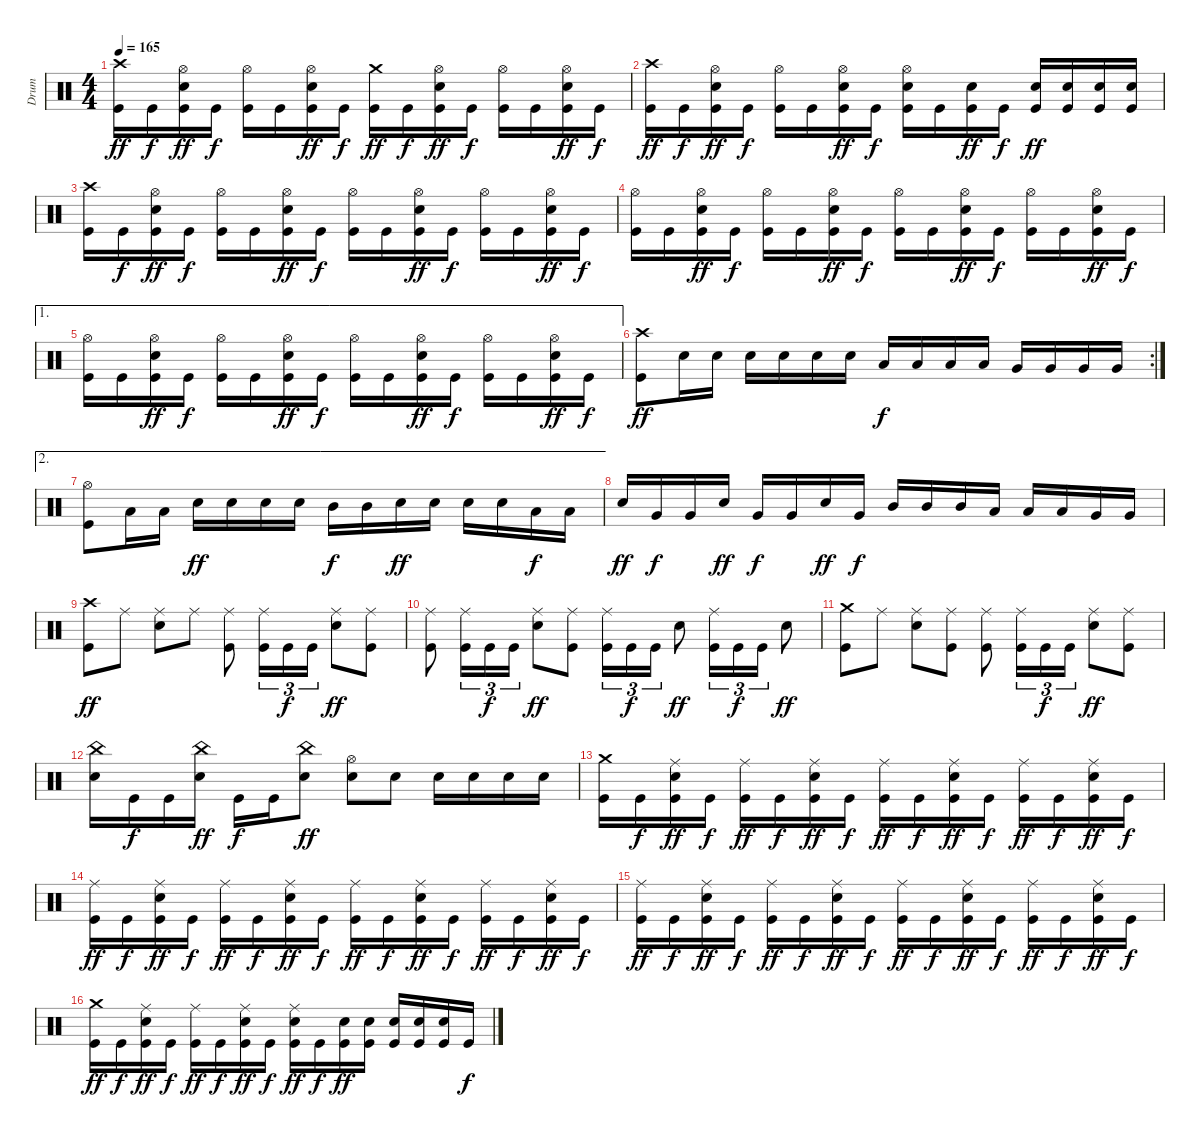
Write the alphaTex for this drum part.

\track ("Drum" "Drum") {instrument percussion}
\staff {score}
\articulation defaults
\ts (4 4)
\tempo 165
\clef neutral
\ks c
("Kick (hit)" "Crash high (hit)").16{dy ff} "Kick (hit)".16{dy f} ("Kick (hit)" "Electric Snare (hit)" "Hi-Hat (open)").16{dy ff} "Kick (hit)".16{dy f} ("Kick (hit)" "Hi-Hat (open)").16 "Kick (hit)".16 ("Kick (hit)" "Electric Snare (hit)" "Hi-Hat (open)").16{dy ff} "Kick (hit)".16{dy f} ("Kick (hit)" "Crash medium (hit)").16{dy ff} "Kick (hit)".16{dy f} ("Kick (hit)" "Electric Snare (hit)" "Hi-Hat (open)").16{dy ff} "Kick (hit)".16{dy f} ("Kick (hit)" "Hi-Hat (open)").16 "Kick (hit)".16 ("Kick (hit)" "Electric Snare (hit)" "Hi-Hat (open)").16{dy ff} "Kick (hit)".16{dy f} |
("Kick (hit)" "Crash high (hit)").16{dy ff} "Kick (hit)".16{dy f} ("Kick (hit)" "Electric Snare (hit)" "Hi-Hat (open)").16{dy ff} "Kick (hit)".16{dy f} ("Kick (hit)" "Hi-Hat (open)").16 "Kick (hit)".16 ("Kick (hit)" "Electric Snare (hit)" "Hi-Hat (open)").16{dy ff} "Kick (hit)".16{dy f} ("Kick (hit)" "Electric Snare (hit)" "Hi-Hat (open)").16 "Kick (hit)".16 ("Kick (hit)" "Electric Snare (hit)").16{dy ff} "Kick (hit)".16{dy f} ("Kick (hit)" "Electric Snare (hit)").16{dy ff} ("Kick (hit)" "Electric Snare (hit)").16 ("Kick (hit)" "Electric Snare (hit)").16 ("Kick (hit)" "Electric Snare (hit)").16 |
("Kick (hit)" "Crash high (hit)").16 "Kick (hit)".16{dy f} ("Kick (hit)" "Electric Snare (hit)" "Hi-Hat (open)").16{dy ff} "Kick (hit)".16{dy f} ("Kick (hit)" "Hi-Hat (open)").16 "Kick (hit)".16 ("Kick (hit)" "Electric Snare (hit)" "Hi-Hat (open)").16{dy ff} "Kick (hit)".16{dy f} ("Kick (hit)" "Hi-Hat (open)").16 "Kick (hit)".16 ("Kick (hit)" "Electric Snare (hit)" "Hi-Hat (open)").16{dy ff} "Kick (hit)".16{dy f} ("Kick (hit)" "Hi-Hat (open)").16 "Kick (hit)".16 ("Kick (hit)" "Electric Snare (hit)" "Hi-Hat (open)").16{dy ff} "Kick (hit)".16{dy f} |
("Kick (hit)" "Hi-Hat (open)").16 "Kick (hit)".16 ("Kick (hit)" "Electric Snare (hit)" "Hi-Hat (open)").16{dy ff} "Kick (hit)".16{dy f} ("Kick (hit)" "Hi-Hat (open)").16 "Kick (hit)".16 ("Kick (hit)" "Electric Snare (hit)" "Hi-Hat (open)").16{dy ff} "Kick (hit)".16{dy f} ("Kick (hit)" "Hi-Hat (open)").16 "Kick (hit)".16 ("Kick (hit)" "Electric Snare (hit)" "Hi-Hat (open)").16{dy ff} "Kick (hit)".16{dy f} ("Kick (hit)" "Hi-Hat (open)").16 "Kick (hit)".16 ("Kick (hit)" "Electric Snare (hit)" "Hi-Hat (open)").16{dy ff} "Kick (hit)".16{dy f} |
\ae 1
("Kick (hit)" "Hi-Hat (open)").16 "Kick (hit)".16 ("Kick (hit)" "Electric Snare (hit)" "Hi-Hat (open)").16{dy ff} "Kick (hit)".16{dy f} ("Kick (hit)" "Hi-Hat (open)").16 "Kick (hit)".16 ("Kick (hit)" "Electric Snare (hit)" "Hi-Hat (open)").16{dy ff} "Kick (hit)".16{dy f} ("Kick (hit)" "Hi-Hat (open)").16 "Kick (hit)".16 ("Kick (hit)" "Electric Snare (hit)" "Hi-Hat (open)").16{dy ff} "Kick (hit)".16{dy f} ("Kick (hit)" "Hi-Hat (open)").16 "Kick (hit)".16 ("Kick (hit)" "Electric Snare (hit)" "Hi-Hat (open)").16{dy ff} "Kick (hit)".16{dy f} |
\rc 2
("Kick (hit)" "Crash high (hit)").8{dy ff} "Electric Snare (hit)".16 "Electric Snare (hit)".16 "Electric Snare (hit)".16 "Electric Snare (hit)".16 "Electric Snare (hit)".16 "Electric Snare (hit)".16 "Low Tom (hit)".16{dy f} "Low Tom (hit)".16 "Low Tom (hit)".16 "Low Tom (hit)".16 "Very Low Tom (hit)".16 "Very Low Tom (hit)".16 "Very Low Tom (hit)".16 "Very Low Tom (hit)".16 |
\ae 2
("Kick (hit)" "Hi-Hat (open)").8 "Low Tom (hit)".16 "Low Tom (hit)".16 "Electric Snare (hit)".16{dy ff} "Electric Snare (hit)".16 "Electric Snare (hit)".16 "Electric Snare (hit)".16 "Mid Tom (hit)".16{dy f} "Mid Tom (hit)".16 "Electric Snare (hit)".16{dy ff} "Electric Snare (hit)".16 "Electric Snare (hit)".16 "Electric Snare (hit)".16 "Low Tom (hit)".16{dy f} "Low Tom (hit)".16 |
"Electric Snare (hit)".16{dy ff} "Very Low Tom (hit)".16{dy f} "Very Low Tom (hit)".16 "Electric Snare (hit)".16{dy ff} "Very Low Tom (hit)".16{dy f} "Very Low Tom (hit)".16 "Electric Snare (hit)".16{dy ff} "Very Low Tom (hit)".16{dy f} "Mid Tom (hit)".16 "Mid Tom (hit)".16 "Mid Tom (hit)".16 "Low Tom (hit)".16 "Low Tom (hit)".16 "Low Tom (hit)".16 "Very Low Tom (hit)".16 "Very Low Tom (hit)".16 |
("Kick (hit)" "Crash high (hit)").8{dy ff} "Ride (middle)".8 ("Electric Snare (hit)" "Ride (middle)").8 "Ride (middle)".8 ("Kick (hit)" "Ride (middle)").8 ("Kick (hit)" "Ride (middle)").16{tu (3 2)} "Kick (hit)".16{tu (3 2) dy f} "Kick (hit)".16{tu (3 2)} ("Electric Snare (hit)" "Ride (middle)").8{dy ff} ("Kick (hit)" "Ride (middle)").8 |
("Kick (hit)" "Ride (middle)").8 ("Kick (hit)" "Ride (middle)").16{tu (3 2)} "Kick (hit)".16{tu (3 2) dy f} "Kick (hit)".16{tu (3 2)} ("Electric Snare (hit)" "Ride (middle)").8{dy ff} ("Kick (hit)" "Ride (middle)").8 ("Kick (hit)" "Ride (middle)").16{tu (3 2)} "Kick (hit)".16{tu (3 2) dy f} "Kick (hit)".16{tu (3 2)} "Electric Snare (hit)".8{dy ff} ("Kick (hit)" "Ride (middle)").16{tu (3 2)} "Kick (hit)".16{tu (3 2) dy f} "Kick (hit)".16{tu (3 2)} "Electric Snare (hit)".8{dy ff} |
("Kick (hit)" "Crash medium (hit)").8 "Ride (middle)".8 ("Electric Snare (hit)" "Ride (middle)").8 ("Kick (hit)" "Ride (middle)").8 ("Kick (hit)" "Ride (middle)").8 ("Kick (hit)" "Ride (middle)").16{tu (3 2)} "Kick (hit)".16{tu (3 2) dy f} "Kick (hit)".16{tu (3 2)} ("Electric Snare (hit)" "Ride (middle)").8{dy ff} ("Kick (hit)" "Ride (middle)").8 |
("Electric Snare (hit)" "China (hit)").16 "Kick (hit)".16{dy f} "Kick (hit)".16 ("Electric Snare (hit)" "China (hit)").16{dy ff} "Kick (hit)".16{dy f} "Kick (hit)".16 ("Electric Snare (hit)" "China (hit)").8{dy ff} ("Electric Snare (hit)" "Hi-Hat (open)").8 "Electric Snare (hit)".8 "Electric Snare (hit)".16 "Electric Snare (hit)".16 "Electric Snare (hit)".16 "Electric Snare (hit)".16 |
("Kick (hit)" "Crash medium (hit)").16 "Kick (hit)".16{dy f} ("Kick (hit)" "Electric Snare (hit)" "Ride (middle)").16{dy ff} "Kick (hit)".16{dy f} ("Kick (hit)" "Ride (middle)").16{dy ff} "Kick (hit)".16{dy f} ("Kick (hit)" "Electric Snare (hit)" "Ride (middle)").16{dy ff} "Kick (hit)".16{dy f} ("Kick (hit)" "Ride (middle)").16{dy ff} "Kick (hit)".16{dy f} ("Kick (hit)" "Electric Snare (hit)" "Ride (middle)").16{dy ff} "Kick (hit)".16{dy f} ("Kick (hit)" "Ride (middle)").16{dy ff} "Kick (hit)".16{dy f} ("Kick (hit)" "Electric Snare (hit)" "Ride (middle)").16{dy ff} "Kick (hit)".16{dy f} |
("Kick (hit)" "Ride (middle)").16{dy ff} "Kick (hit)".16{dy f} ("Kick (hit)" "Electric Snare (hit)" "Ride (middle)").16{dy ff} "Kick (hit)".16{dy f} ("Kick (hit)" "Ride (middle)").16{dy ff} "Kick (hit)".16{dy f} ("Kick (hit)" "Electric Snare (hit)" "Ride (middle)").16{dy ff} "Kick (hit)".16{dy f} ("Kick (hit)" "Ride (middle)").16{dy ff} "Kick (hit)".16{dy f} ("Kick (hit)" "Electric Snare (hit)" "Ride (middle)").16{dy ff} "Kick (hit)".16{dy f} ("Kick (hit)" "Ride (middle)").16{dy ff} "Kick (hit)".16{dy f} ("Kick (hit)" "Electric Snare (hit)" "Ride (middle)").16{dy ff} "Kick (hit)".16{dy f} |
("Kick (hit)" "Ride (middle)").16{dy ff} "Kick (hit)".16{dy f} ("Kick (hit)" "Electric Snare (hit)" "Ride (middle)").16{dy ff} "Kick (hit)".16{dy f} ("Kick (hit)" "Ride (middle)").16{dy ff} "Kick (hit)".16{dy f} ("Kick (hit)" "Electric Snare (hit)" "Ride (middle)").16{dy ff} "Kick (hit)".16{dy f} ("Kick (hit)" "Ride (middle)").16{dy ff} "Kick (hit)".16{dy f} ("Kick (hit)" "Electric Snare (hit)" "Ride (middle)").16{dy ff} "Kick (hit)".16{dy f} ("Kick (hit)" "Ride (middle)").16{dy ff} "Kick (hit)".16{dy f} ("Kick (hit)" "Electric Snare (hit)" "Ride (middle)").16{dy ff} "Kick (hit)".16{dy f} |
("Kick (hit)" "Crash medium (hit)").16{dy ff} "Kick (hit)".16{dy f} ("Kick (hit)" "Electric Snare (hit)" "Ride (middle)").16{dy ff} "Kick (hit)".16{dy f} ("Kick (hit)" "Ride (middle)").16{dy ff} "Kick (hit)".16{dy f} ("Kick (hit)" "Electric Snare (hit)" "Ride (middle)").16{dy ff} "Kick (hit)".16{dy f} ("Kick (hit)" "Electric Snare (hit)" "Ride (middle)").16{dy ff} "Kick (hit)".16{dy f} ("Kick (hit)" "Electric Snare (hit)").16{dy ff} ("Kick (hit)" "Electric Snare (hit)").16 ("Kick (hit)" "Electric Snare (hit)").16 ("Kick (hit)" "Electric Snare (hit)").16 ("Kick (hit)" "Electric Snare (hit)").16 "Kick (hit)".16{dy f}
